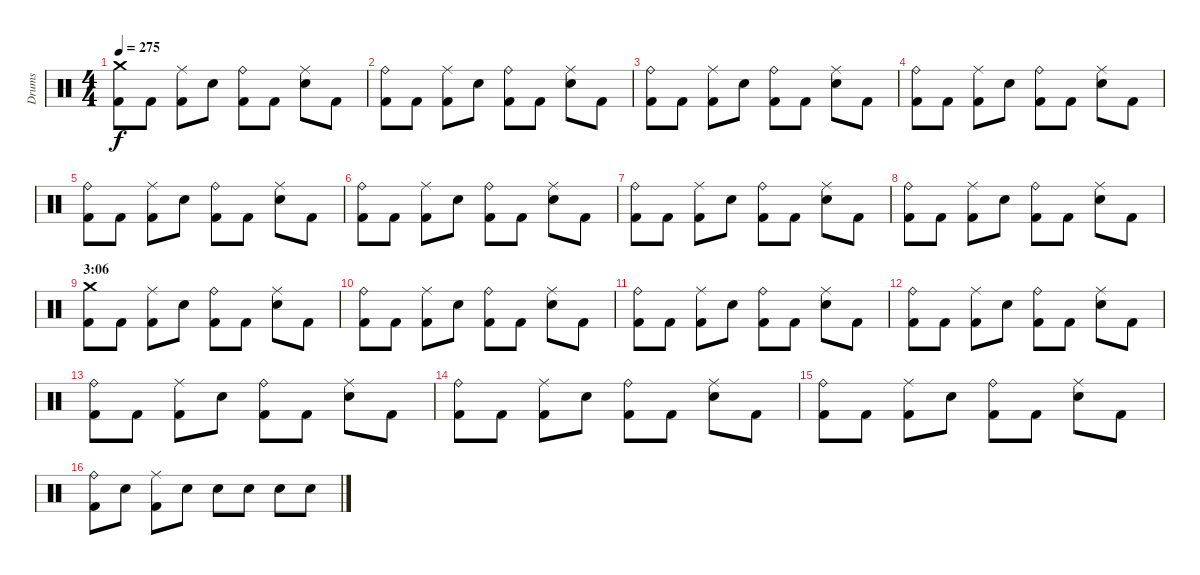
\track ("Drums" "Drums") {instrument percussion}
\staff {score}
\articulation defaults
\ts (4 4)
\tempo 275
\clef neutral
\ks c
("Crash medium (hit)" "Kick (hit) 2").8{dy f} "Kick (hit) 2".8 ("Ride (middle)" "Kick (hit) 2").8 "Electric Snare (hit)".8 ("Ride (bell)" "Kick (hit) 2").8 "Kick (hit) 2".8 ("Ride (middle)" "Electric Snare (hit)").8 "Kick (hit) 2".8 |
("Ride (bell)" "Kick (hit) 2").8 "Kick (hit) 2".8 ("Ride (middle)" "Kick (hit) 2").8 "Electric Snare (hit)".8 ("Ride (bell)" "Kick (hit) 2").8 "Kick (hit) 2".8 ("Ride (middle)" "Electric Snare (hit)").8 "Kick (hit) 2".8 |
("Ride (bell)" "Kick (hit) 2").8 "Kick (hit) 2".8 ("Ride (middle)" "Kick (hit) 2").8 "Electric Snare (hit)".8 ("Ride (bell)" "Kick (hit) 2").8 "Kick (hit) 2".8 ("Ride (middle)" "Electric Snare (hit)").8 "Kick (hit) 2".8 |
("Ride (bell)" "Kick (hit) 2").8 "Kick (hit) 2".8 ("Ride (middle)" "Kick (hit) 2").8 "Electric Snare (hit)".8 ("Ride (bell)" "Kick (hit) 2").8 "Kick (hit) 2".8 ("Ride (middle)" "Electric Snare (hit)").8 "Kick (hit) 2".8 |
("Ride (bell)" "Kick (hit) 2").8 "Kick (hit) 2".8 ("Ride (middle)" "Kick (hit) 2").8 "Electric Snare (hit)".8 ("Ride (bell)" "Kick (hit) 2").8 "Kick (hit) 2".8 ("Ride (middle)" "Electric Snare (hit)").8 "Kick (hit) 2".8 |
("Ride (bell)" "Kick (hit) 2").8 "Kick (hit) 2".8 ("Ride (middle)" "Kick (hit) 2").8 "Electric Snare (hit)".8 ("Ride (bell)" "Kick (hit) 2").8 "Kick (hit) 2".8 ("Ride (middle)" "Electric Snare (hit)").8 "Kick (hit) 2".8 |
("Ride (bell)" "Kick (hit) 2").8 "Kick (hit) 2".8 ("Ride (middle)" "Kick (hit) 2").8 "Electric Snare (hit)".8 ("Ride (bell)" "Kick (hit) 2").8 "Kick (hit) 2".8 ("Ride (middle)" "Electric Snare (hit)").8 "Kick (hit) 2".8 |
("Ride (bell)" "Kick (hit) 2").8 "Kick (hit) 2".8 ("Ride (middle)" "Kick (hit) 2").8 "Electric Snare (hit)".8 ("Ride (bell)" "Kick (hit) 2").8 "Kick (hit) 2".8 ("Ride (middle)" "Electric Snare (hit)").8 "Kick (hit) 2".8 |
\section ("" "3:06")
("Crash medium (hit)" "Kick (hit) 2").8 "Kick (hit) 2".8 ("Ride (middle)" "Kick (hit) 2").8 "Electric Snare (hit)".8 ("Ride (bell)" "Kick (hit) 2").8 "Kick (hit) 2".8 ("Ride (middle)" "Electric Snare (hit)").8 "Kick (hit) 2".8 |
("Ride (bell)" "Kick (hit) 2").8 "Kick (hit) 2".8 ("Ride (middle)" "Kick (hit) 2").8 "Electric Snare (hit)".8 ("Ride (bell)" "Kick (hit) 2").8 "Kick (hit) 2".8 ("Ride (middle)" "Electric Snare (hit)").8 "Kick (hit) 2".8 |
("Ride (bell)" "Kick (hit) 2").8 "Kick (hit) 2".8 ("Ride (middle)" "Kick (hit) 2").8 "Electric Snare (hit)".8 ("Ride (bell)" "Kick (hit) 2").8 "Kick (hit) 2".8 ("Ride (middle)" "Electric Snare (hit)").8 "Kick (hit) 2".8 |
("Ride (bell)" "Kick (hit) 2").8 "Kick (hit) 2".8 ("Ride (middle)" "Kick (hit) 2").8 "Electric Snare (hit)".8 ("Ride (bell)" "Kick (hit) 2").8 "Kick (hit) 2".8 ("Ride (middle)" "Electric Snare (hit)").8 "Kick (hit) 2".8 |
("Ride (bell)" "Kick (hit) 2").8 "Kick (hit) 2".8 ("Ride (middle)" "Kick (hit) 2").8 "Electric Snare (hit)".8 ("Ride (bell)" "Kick (hit) 2").8 "Kick (hit) 2".8 ("Ride (middle)" "Electric Snare (hit)").8 "Kick (hit) 2".8 |
("Ride (bell)" "Kick (hit) 2").8 "Kick (hit) 2".8 ("Ride (middle)" "Kick (hit) 2").8 "Electric Snare (hit)".8 ("Ride (bell)" "Kick (hit) 2").8 "Kick (hit) 2".8 ("Ride (middle)" "Electric Snare (hit)").8 "Kick (hit) 2".8 |
("Ride (bell)" "Kick (hit) 2").8 "Kick (hit) 2".8 ("Ride (middle)" "Kick (hit) 2").8 "Electric Snare (hit)".8 ("Ride (bell)" "Kick (hit) 2").8 "Kick (hit) 2".8 ("Ride (middle)" "Electric Snare (hit)").8 "Kick (hit) 2".8 |
("Ride (bell)" "Kick (hit) 2").8 "Electric Snare (hit)".8 ("Ride (middle)" "Kick (hit) 2").8 "Electric Snare (hit)".8 "Electric Snare (hit)".8 "Electric Snare (hit)".8 "Electric Snare (hit)".8 "Electric Snare (hit)".8
